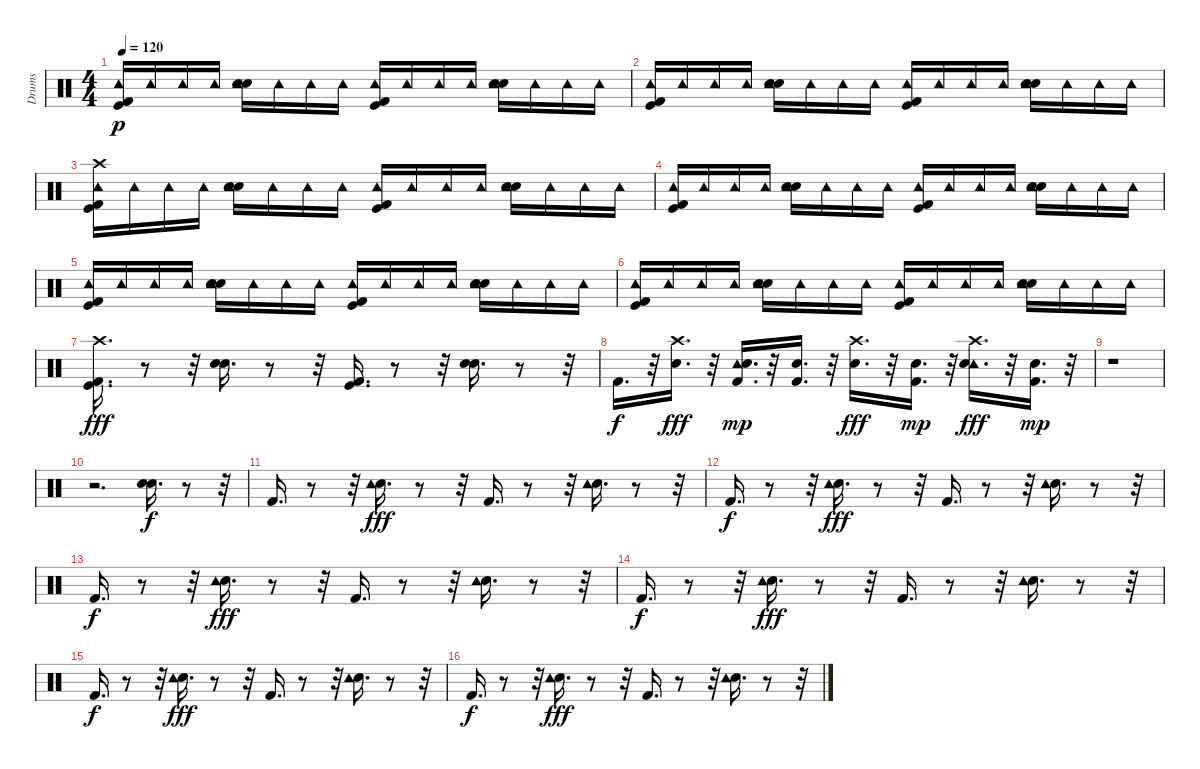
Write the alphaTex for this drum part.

\track ("Drums" "Drums") {instrument percussion}
\staff {score}
\articulation defaults
\ts (4 4)
\tempo 120
\clef neutral
\ks c
("Kick (hit) 2" "Tambourine (hit)" "Kick (hit)").16{dy p} "Tambourine (hit)".16 "Tambourine (hit)".16 "Tambourine (hit)".16 ("Snare (hit) 2" "Tambourine (hit)" "Electric Snare (hit)").16 "Tambourine (hit)".16 "Tambourine (hit)".16 "Tambourine (hit)".16 ("Kick (hit) 2" "Tambourine (hit)" "Kick (hit)").16 "Tambourine (hit)".16 "Tambourine (hit)".16 "Tambourine (hit)".16 ("Snare (hit) 2" "Tambourine (hit)" "Electric Snare (hit)").16 "Tambourine (hit)".16 "Tambourine (hit)".16 "Tambourine (hit)".16 |
("Kick (hit) 2" "Tambourine (hit)" "Kick (hit)").16 "Tambourine (hit)".16 "Tambourine (hit)".16 "Tambourine (hit)".16 ("Snare (hit) 2" "Tambourine (hit)" "Electric Snare (hit)").16 "Tambourine (hit)".16 "Tambourine (hit)".16 "Tambourine (hit)".16 ("Kick (hit) 2" "Tambourine (hit)" "Kick (hit)").16 "Tambourine (hit)".16 "Tambourine (hit)".16 "Tambourine (hit)".16 ("Snare (hit) 2" "Tambourine (hit)" "Electric Snare (hit)").16 "Tambourine (hit)".16 "Tambourine (hit)".16 "Tambourine (hit)".16 |
("Kick (hit) 2" "Tambourine (hit)" "Crash high (hit)" "Kick (hit)").16 "Tambourine (hit)".16 "Tambourine (hit)".16 "Tambourine (hit)".16 ("Snare (hit) 2" "Tambourine (hit)" "Electric Snare (hit)").16 "Tambourine (hit)".16 "Tambourine (hit)".16 "Tambourine (hit)".16 ("Kick (hit) 2" "Tambourine (hit)" "Kick (hit)").16 "Tambourine (hit)".16 "Tambourine (hit)".16 "Tambourine (hit)".16 ("Snare (hit) 2" "Tambourine (hit)" "Electric Snare (hit)").16 "Tambourine (hit)".16 "Tambourine (hit)".16 "Tambourine (hit)".16 |
("Kick (hit) 2" "Tambourine (hit)" "Kick (hit)").16 "Tambourine (hit)".16 "Tambourine (hit)".16 "Tambourine (hit)".16 ("Snare (hit) 2" "Tambourine (hit)" "Electric Snare (hit)").16 "Tambourine (hit)".16 "Tambourine (hit)".16 "Tambourine (hit)".16 ("Kick (hit) 2" "Tambourine (hit)" "Kick (hit)").16 "Tambourine (hit)".16 "Tambourine (hit)".16 "Tambourine (hit)".16 ("Snare (hit) 2" "Tambourine (hit)" "Electric Snare (hit)").16 "Tambourine (hit)".16 "Tambourine (hit)".16 "Tambourine (hit)".16 |
("Kick (hit) 2" "Tambourine (hit)" "Kick (hit)").16 "Tambourine (hit)".16 "Tambourine (hit)".16 "Tambourine (hit)".16 ("Snare (hit) 2" "Tambourine (hit)" "Electric Snare (hit)").16 "Tambourine (hit)".16 "Tambourine (hit)".16 "Tambourine (hit)".16 ("Kick (hit) 2" "Tambourine (hit)" "Kick (hit)").16 "Tambourine (hit)".16 "Tambourine (hit)".16 "Tambourine (hit)".16 ("Snare (hit) 2" "Tambourine (hit)" "Electric Snare (hit)").16 "Tambourine (hit)".16 "Tambourine (hit)".16 "Tambourine (hit)".16 |
("Kick (hit) 2" "Tambourine (hit)" "Kick (hit)").16 "Tambourine (hit)".16 "Tambourine (hit)".16 "Tambourine (hit)".16 ("Snare (hit) 2" "Tambourine (hit)" "Electric Snare (hit)").16 "Tambourine (hit)".16 "Tambourine (hit)".16 "Tambourine (hit)".16 ("Kick (hit) 2" "Tambourine (hit)" "Kick (hit)").16 "Tambourine (hit)".16 "Tambourine (hit)".16 "Tambourine (hit)".16 ("Snare (hit) 2" "Tambourine (hit)" "Electric Snare (hit)").16 "Tambourine (hit)".16 "Tambourine (hit)".16 "Tambourine (hit)".16 |
("Kick (hit) 2" "Kick (hit)" "Crash high (hit)").16{d dy fff} r.8 r.32 ("Snare (hit) 2" "Electric Snare (hit)").16{d} r.8 r.32 ("Kick (hit) 2" "Kick (hit)").16{d} r.8 r.32 ("Snare (hit) 2" "Electric Snare (hit)").16{d} r.8 r.32 |
"Kick (hit) 2".16{d dy f} r.32 ("Snare (hit) 2" "Crash high (hit)").16{d dy fff} r.32 ("Tambourine (hit)" "Kick (hit) 2" "Electric Snare (hit)").16{d dy mp} r.32 ("Kick (hit) 2" "Electric Snare (hit)").16{d} r.32 ("Snare (hit) 2" "Crash high (hit)").16{d dy fff} r.32 ("Kick (hit) 2" "Electric Snare (hit)").16{d dy mp} r.32 ("Tambourine (hit)" "Snare (hit) 2" "Crash high (hit)").16{d dy fff} r.32 ("Kick (hit) 2" "Electric Snare (hit)").16{d dy mp} r.32 |
r.1 |
r.2{d} ("Electric Snare (hit)" "Snare (hit) 2").16{d dy f} r.8 r.32 |
"Kick (hit) 2".16{d} r.8 r.32 ("Snare (hit) 2" "Tambourine (hit)").16{d dy fff} r.8 r.32 "Kick (hit) 2".16{d} r.8 r.32 ("Snare (hit) 2" "Tambourine (hit)").16{d} r.8 r.32 |
"Kick (hit) 2".16{d dy f} r.8 r.32 ("Snare (hit) 2" "Tambourine (hit)").16{d dy fff} r.8 r.32 "Kick (hit) 2".16{d} r.8 r.32 ("Snare (hit) 2" "Tambourine (hit)").16{d} r.8 r.32 |
"Kick (hit) 2".16{d dy f} r.8 r.32 ("Snare (hit) 2" "Tambourine (hit)").16{d dy fff} r.8 r.32 "Kick (hit) 2".16{d} r.8 r.32 ("Snare (hit) 2" "Tambourine (hit)").16{d} r.8 r.32 |
"Kick (hit) 2".16{d dy f} r.8 r.32 ("Snare (hit) 2" "Tambourine (hit)").16{d dy fff} r.8 r.32 "Kick (hit) 2".16{d} r.8 r.32 ("Snare (hit) 2" "Tambourine (hit)").16{d} r.8 r.32 |
"Kick (hit) 2".16{d dy f} r.8 r.32 ("Snare (hit) 2" "Tambourine (hit)").16{d dy fff} r.8 r.32 "Kick (hit) 2".16{d} r.8 r.32 ("Snare (hit) 2" "Tambourine (hit)").16{d} r.8 r.32 |
"Kick (hit) 2".16{d dy f} r.8 r.32 ("Snare (hit) 2" "Tambourine (hit)").16{d dy fff} r.8 r.32 "Kick (hit) 2".16{d} r.8 r.32 ("Snare (hit) 2" "Tambourine (hit)").16{d} r.8 r.32
